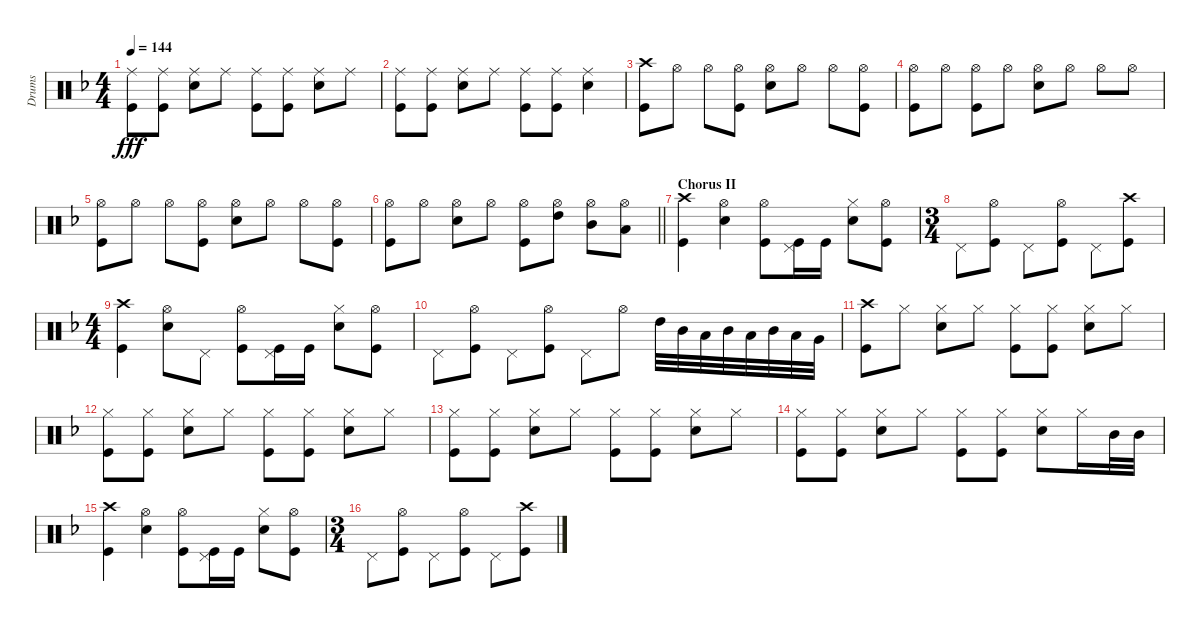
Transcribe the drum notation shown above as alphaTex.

\track ("Drums" "Drums") {instrument percussion}
\staff {score}
\articulation defaults
\ts (4 4)
\tempo 144
\clef neutral
\ks f
("Ride (middle)" "Kick (hit)").8{dy fff} ("Ride (middle)" "Kick (hit)").8 ("Ride (middle)" "Snare (hit) 2").8 "Ride (middle)".8 ("Ride (middle)" "Kick (hit)").8 ("Ride (middle)" "Kick (hit)").8 ("Ride (middle)" "Snare (hit) 2").8 "Ride (middle)".8 |
("Ride (middle)" "Kick (hit)").8 ("Ride (middle)" "Kick (hit)").8 ("Ride (middle)" "Snare (hit) 2").8 "Ride (middle)".8 ("Ride (middle)" "Kick (hit)").8 ("Ride (middle)" "Kick (hit)").8 ("Ride (middle)" "Snare (hit) 2").4 |
("Crash high (hit)" "Kick (hit)").8 "Hi-Hat (open)".8 "Hi-Hat (open)".8 ("Hi-Hat (open)" "Kick (hit)").8 ("Hi-Hat (open)" "Snare (hit) 2").8 "Hi-Hat (open)".8 "Hi-Hat (open)".8 ("Hi-Hat (open)" "Kick (hit)").8 |
("Hi-Hat (open)" "Kick (hit)").8 "Hi-Hat (open)".8 ("Hi-Hat (open)" "Kick (hit)").8 "Hi-Hat (open)".8 ("Hi-Hat (open)" "Snare (hit) 2").8 "Hi-Hat (open)".8 "Hi-Hat (open)".8 "Hi-Hat (open)".8 |
("Hi-Hat (open)" "Kick (hit)").8 "Hi-Hat (open)".8 "Hi-Hat (open)".8 ("Hi-Hat (open)" "Kick (hit)").8 ("Hi-Hat (open)" "Snare (hit) 2").8 "Hi-Hat (open)".8 "Hi-Hat (open)".8 ("Hi-Hat (open)" "Kick (hit)").8 |
\barLineRight lightlight
("Hi-Hat (open)" "Kick (hit)").8 "Hi-Hat (open)".8 ("Hi-Hat (open)" "Snare (hit) 2").8 "Hi-Hat (open)".8 ("Hi-Hat (open)" "Kick (hit)").8 ("Hi-Hat (open)" "High Tom (hit)").8 ("Hi-Hat (open)" "Mid Tom (hit)").8 ("Hi-Hat (open)" "Low Tom (hit)").8 |
\section ("" "Chorus II")
("Crash high (hit)" "Kick (hit)").4 ("Hi-Hat (open)" "Snare (hit) 2").4 ("Hi-Hat (open)" "Kick (hit)").8 ("Pedal Hi-Hat (hit)" "Kick (hit)").16 "Kick (hit)".16 ("Hi-Hat (closed)" "Snare (hit) 2").8 ("Hi-Hat (open)" "Kick (hit)").8 |
\ts (3 4)
"Pedal Hi-Hat (hit)".8 ("Hi-Hat (open)" "Kick (hit)").8 "Pedal Hi-Hat (hit)".8 ("Hi-Hat (open)" "Kick (hit)").8 "Pedal Hi-Hat (hit)".8 ("Crash high (hit)" "Kick (hit)").8 |
\ts (4 4)
("Crash high (hit)" "Kick (hit)").4 ("Hi-Hat (open)" "Snare (hit) 2").8 "Pedal Hi-Hat (hit)".8 ("Hi-Hat (open)" "Kick (hit)").8 ("Pedal Hi-Hat (hit)" "Kick (hit)").16 "Kick (hit)".16 ("Hi-Hat (closed)" "Snare (hit) 2").8 ("Hi-Hat (open)" "Kick (hit)").8 |
"Pedal Hi-Hat (hit)".8 ("Hi-Hat (open)" "Kick (hit)").8 "Pedal Hi-Hat (hit)".8 ("Hi-Hat (open)" "Kick (hit)").8 "Pedal Hi-Hat (hit)".8 "Hi-Hat (open)".8 "High Tom (hit)".32 "Mid Tom (hit)".32 "Low Tom (hit)".32 "Mid Tom (hit)".32 "Low Tom (hit)".32 "Mid Tom (hit)".32 "Low Tom (hit)".32 "Very Low Tom (hit)".32 |
("Crash high (hit)" "Kick (hit)").8 "Hi-Hat (closed)".8 ("Hi-Hat (closed)" "Snare (hit) 2").8 "Hi-Hat (closed)".8 ("Hi-Hat (closed)" "Kick (hit)").8 ("Hi-Hat (closed)" "Kick (hit)").8 ("Hi-Hat (closed)" "Snare (hit) 2").8 "Hi-Hat (closed)".8 |
("Hi-Hat (closed)" "Kick (hit)").8 ("Hi-Hat (closed)" "Kick (hit)").8 ("Hi-Hat (closed)" "Snare (hit) 2").8 "Hi-Hat (closed)".8 ("Hi-Hat (closed)" "Kick (hit)").8 ("Hi-Hat (closed)" "Kick (hit)").8 ("Hi-Hat (closed)" "Snare (hit) 2").8 "Hi-Hat (closed)".8 |
("Hi-Hat (closed)" "Kick (hit)").8 ("Hi-Hat (closed)" "Kick (hit)").8 ("Hi-Hat (closed)" "Snare (hit) 2").8 "Hi-Hat (closed)".8 ("Hi-Hat (closed)" "Kick (hit)").8 ("Hi-Hat (closed)" "Kick (hit)").8 ("Hi-Hat (closed)" "Snare (hit) 2").8 "Hi-Hat (closed)".8 |
("Hi-Hat (closed)" "Kick (hit)").8 ("Hi-Hat (closed)" "Kick (hit)").8 ("Hi-Hat (closed)" "Snare (hit) 2").8 "Hi-Hat (closed)".8 ("Hi-Hat (closed)" "Kick (hit)").8 ("Hi-Hat (closed)" "Kick (hit)").8 ("Hi-Hat (closed)" "Snare (hit) 2").8 "Hi-Hat (closed)".16 "Mid Tom (hit)".32 "Mid Tom (hit)".32 |
("Crash high (hit)" "Kick (hit)").4 ("Hi-Hat (open)" "Snare (hit) 2").4 ("Hi-Hat (open)" "Kick (hit)").8 ("Pedal Hi-Hat (hit)" "Kick (hit)").16 "Kick (hit)".16 ("Hi-Hat (closed)" "Snare (hit) 2").8 ("Hi-Hat (open)" "Kick (hit)").8 |
\ts (3 4)
"Pedal Hi-Hat (hit)".8 ("Hi-Hat (open)" "Kick (hit)").8 "Pedal Hi-Hat (hit)".8 ("Hi-Hat (open)" "Kick (hit)").8 "Pedal Hi-Hat (hit)".8 ("Crash high (hit)" "Kick (hit)").8
